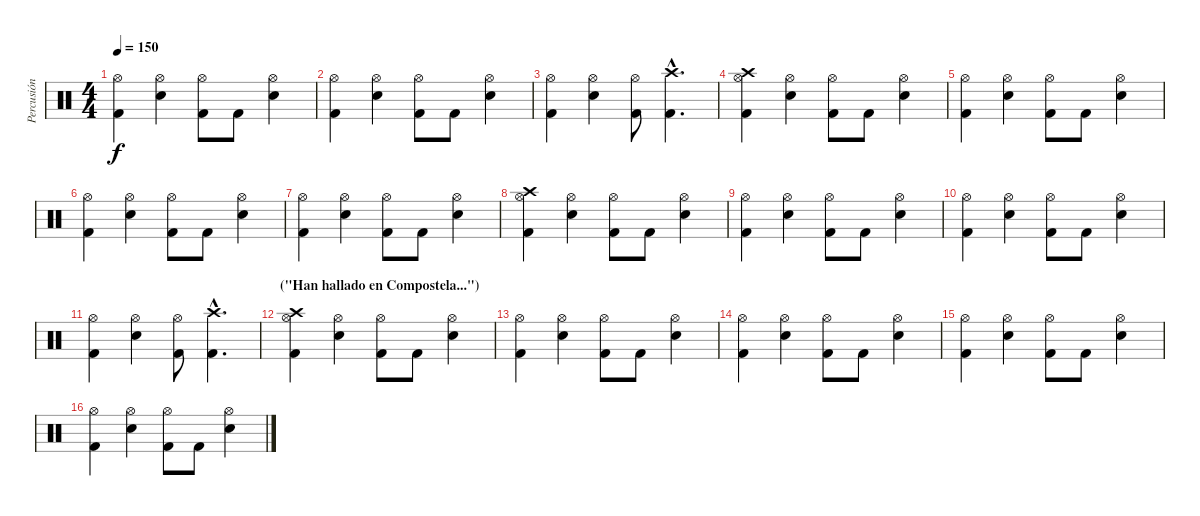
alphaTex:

\track ("Percusión" "Percusión") {instrument percussion}
\staff {score}
\articulation defaults
\ts (4 4)
\tempo 150
\clef neutral
\ks c
("Hi-Hat (open)" "Kick (hit) 2").4{dy f} ("Hi-Hat (open)" "Snare (hit) 2").4 ("Hi-Hat (open)" "Kick (hit) 2").8 "Kick (hit) 2".8 ("Hi-Hat (open)" "Snare (hit) 2").4 |
("Hi-Hat (open)" "Kick (hit) 2").4 ("Hi-Hat (open)" "Snare (hit) 2").4 ("Hi-Hat (open)" "Kick (hit) 2").8 "Kick (hit) 2".8 ("Hi-Hat (open)" "Snare (hit) 2").4 |
("Hi-Hat (open)" "Kick (hit) 2").4 ("Hi-Hat (open)" "Snare (hit) 2").4 ("Hi-Hat (open)" "Kick (hit) 2").8 ("Crash high (hit)"{hac} "Kick (hit) 2"{hac}).4{d} |
("Crash high (hit)" "Hi-Hat (open)" "Kick (hit) 2").4 ("Hi-Hat (open)" "Snare (hit) 2").4 ("Hi-Hat (open)" "Kick (hit) 2").8 "Kick (hit) 2".8 ("Hi-Hat (open)" "Snare (hit) 2").4 |
("Hi-Hat (open)" "Kick (hit) 2").4 ("Hi-Hat (open)" "Snare (hit) 2").4 ("Hi-Hat (open)" "Kick (hit) 2").8 "Kick (hit) 2".8 ("Hi-Hat (open)" "Snare (hit) 2").4 |
("Hi-Hat (open)" "Kick (hit) 2").4 ("Hi-Hat (open)" "Snare (hit) 2").4 ("Hi-Hat (open)" "Kick (hit) 2").8 "Kick (hit) 2".8 ("Hi-Hat (open)" "Snare (hit) 2").4 |
("Hi-Hat (open)" "Kick (hit) 2").4 ("Hi-Hat (open)" "Snare (hit) 2").4 ("Hi-Hat (open)" "Kick (hit) 2").8 "Kick (hit) 2".8 ("Hi-Hat (open)" "Snare (hit) 2").4 |
("Crash high (hit)" "Hi-Hat (open)" "Kick (hit) 2").4 ("Hi-Hat (open)" "Snare (hit) 2").4 ("Hi-Hat (open)" "Kick (hit) 2").8 "Kick (hit) 2".8 ("Hi-Hat (open)" "Snare (hit) 2").4 |
("Hi-Hat (open)" "Kick (hit) 2").4 ("Hi-Hat (open)" "Snare (hit) 2").4 ("Hi-Hat (open)" "Kick (hit) 2").8 "Kick (hit) 2".8 ("Hi-Hat (open)" "Snare (hit) 2").4 |
("Hi-Hat (open)" "Kick (hit) 2").4 ("Hi-Hat (open)" "Snare (hit) 2").4 ("Hi-Hat (open)" "Kick (hit) 2").8 "Kick (hit) 2".8 ("Hi-Hat (open)" "Snare (hit) 2").4 |
("Hi-Hat (open)" "Kick (hit) 2").4 ("Hi-Hat (open)" "Snare (hit) 2").4 ("Hi-Hat (open)" "Kick (hit) 2").8 ("Crash high (hit)"{hac} "Kick (hit) 2"{hac}).4{d} |
\section ("" "(\"Han hallado en Compostela...\")")
("Crash high (hit)" "Hi-Hat (open)" "Kick (hit) 2").4 ("Hi-Hat (open)" "Snare (hit) 2").4 ("Hi-Hat (open)" "Kick (hit) 2").8 "Kick (hit) 2".8 ("Hi-Hat (open)" "Snare (hit) 2").4 |
("Hi-Hat (open)" "Kick (hit) 2").4 ("Hi-Hat (open)" "Snare (hit) 2").4 ("Hi-Hat (open)" "Kick (hit) 2").8 "Kick (hit) 2".8 ("Hi-Hat (open)" "Snare (hit) 2").4 |
("Hi-Hat (open)" "Kick (hit) 2").4 ("Hi-Hat (open)" "Snare (hit) 2").4 ("Hi-Hat (open)" "Kick (hit) 2").8 "Kick (hit) 2".8 ("Hi-Hat (open)" "Snare (hit) 2").4 |
("Hi-Hat (open)" "Kick (hit) 2").4 ("Hi-Hat (open)" "Snare (hit) 2").4 ("Hi-Hat (open)" "Kick (hit) 2").8 "Kick (hit) 2".8 ("Hi-Hat (open)" "Snare (hit) 2").4 |
("Hi-Hat (open)" "Kick (hit) 2").4 ("Hi-Hat (open)" "Snare (hit) 2").4 ("Hi-Hat (open)" "Kick (hit) 2").8 "Kick (hit) 2".8 ("Hi-Hat (open)" "Snare (hit) 2").4
